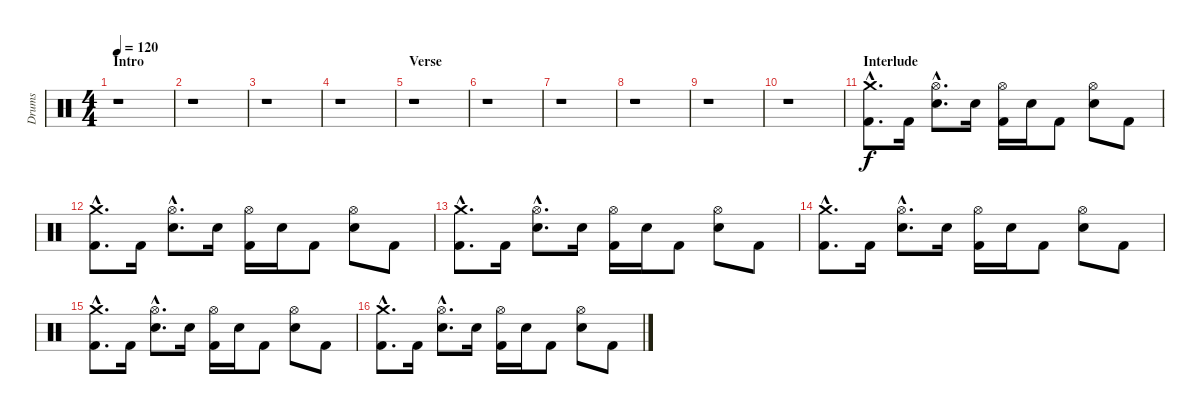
\track ("Drums" "Drums") {instrument percussion}
\staff {score}
\articulation defaults
\ts (4 4)
\section ("" "Intro")
\tempo 120
\clef neutral
\ks c
r.1{dy f} |
r.1 |
r.1 |
r.1 |
\section ("" "Verse")
r.1 |
r.1 |
r.1 |
r.1 |
r.1 |
r.1 |
\section ("" "Interlude")
("Crash medium (hit)"{hac} "Kick (hit) 2"{hac}).8{d} "Kick (hit) 2".16 ("Hi-Hat (open)"{hac} "Electric Snare (hit)"{hac}).8{d} "Electric Snare (hit)".16 ("Hi-Hat (open)" "Kick (hit) 2").16 "Electric Snare (hit)".16 "Kick (hit) 2".8 ("Hi-Hat (open)" "Electric Snare (hit)").8 "Kick (hit) 2".8 |
("Crash medium (hit)"{hac} "Kick (hit) 2"{hac}).8{d} "Kick (hit) 2".16 ("Hi-Hat (open)"{hac} "Electric Snare (hit)"{hac}).8{d} "Electric Snare (hit)".16 ("Hi-Hat (open)" "Kick (hit) 2").16 "Electric Snare (hit)".16 "Kick (hit) 2".8 ("Hi-Hat (open)" "Electric Snare (hit)").8 "Kick (hit) 2".8 |
("Crash medium (hit)"{hac} "Kick (hit) 2"{hac}).8{d} "Kick (hit) 2".16 ("Hi-Hat (open)"{hac} "Electric Snare (hit)"{hac}).8{d} "Electric Snare (hit)".16 ("Hi-Hat (open)" "Kick (hit) 2").16 "Electric Snare (hit)".16 "Kick (hit) 2".8 ("Hi-Hat (open)" "Electric Snare (hit)").8 "Kick (hit) 2".8 |
("Crash medium (hit)"{hac} "Kick (hit) 2"{hac}).8{d} "Kick (hit) 2".16 ("Hi-Hat (open)"{hac} "Electric Snare (hit)"{hac}).8{d} "Electric Snare (hit)".16 ("Hi-Hat (open)" "Kick (hit) 2").16 "Electric Snare (hit)".16 "Kick (hit) 2".8 ("Hi-Hat (open)" "Electric Snare (hit)").8 "Kick (hit) 2".8 |
("Crash medium (hit)"{hac} "Kick (hit) 2"{hac}).8{d} "Kick (hit) 2".16 ("Hi-Hat (open)"{hac} "Electric Snare (hit)"{hac}).8{d} "Electric Snare (hit)".16 ("Hi-Hat (open)" "Kick (hit) 2").16 "Electric Snare (hit)".16 "Kick (hit) 2".8 ("Hi-Hat (open)" "Electric Snare (hit)").8 "Kick (hit) 2".8 |
("Crash medium (hit)"{hac} "Kick (hit) 2"{hac}).8{d} "Kick (hit) 2".16 ("Hi-Hat (open)"{hac} "Electric Snare (hit)"{hac}).8{d} "Electric Snare (hit)".16 ("Hi-Hat (open)" "Kick (hit) 2").16 "Electric Snare (hit)".16 "Kick (hit) 2".8 ("Hi-Hat (open)" "Electric Snare (hit)").8 "Kick (hit) 2".8
